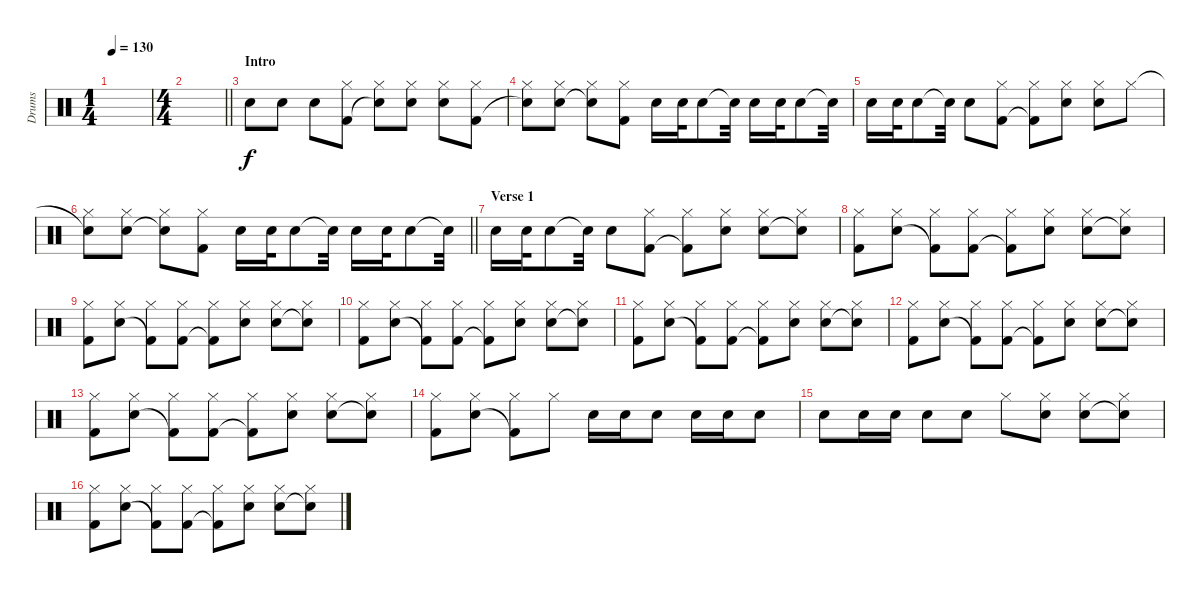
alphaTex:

\track ("Drums" "Drums") {instrument percussion}
\staff {score}
\articulation defaults
\ts (1 4)
\tempo 130
\clef neutral
\ks c
|
\ts (4 4)
\barLineRight lightlight
|
\section ("" "Intro")
"Snare (hit) 2".8 "Snare (hit) 2".8 "Snare (hit) 2".8 ("Kick (hit) 2" "Hi-Hat (closed)").8 ("Snare (hit)"{t} "Hi-Hat (closed)").8 ("Snare (hit) 2" "Hi-Hat (closed)").8 ("Snare (hit) 2" "Hi-Hat (closed)").8 ("Kick (hit) 2" "Hi-Hat (closed)").8 |
("Snare (hit)"{t} "Hi-Hat (closed)").8 ("Snare (hit) 2" "Hi-Hat (closed)").8 ("Snare (hit)"{t} "Hi-Hat (closed)").8 ("Kick (hit) 2" "Hi-Hat (closed)").8 "Snare (hit) 2".16 "Snare (hit) 2".32 "Snare (hit) 2".8 "Snare (hit)"{t}.32 "Snare (hit) 2".16 "Snare (hit) 2".32 "Snare (hit) 2".8 "Snare (hit)"{t}.32 |
"Snare (hit) 2".16 "Snare (hit) 2".32 "Snare (hit) 2".8 "Snare (hit)"{t}.32 "Snare (hit) 2".8 ("Kick (hit) 2" "Hi-Hat (closed)").8 ("Kick (hit) 2"{t} "Hi-Hat (closed)").8 ("Snare (hit) 2" "Hi-Hat (closed)").8 ("Snare (hit) 2" "Hi-Hat (closed)").8 "Hi-Hat (closed)".8 |
\barLineRight lightlight
("Snare (hit)"{t} "Hi-Hat (closed)").8 ("Snare (hit) 2" "Hi-Hat (closed)").8 ("Snare (hit)"{t} "Hi-Hat (closed)").8 ("Kick (hit) 2" "Hi-Hat (closed)").8 "Snare (hit) 2".16 "Snare (hit) 2".32 "Snare (hit) 2".8 "Snare (hit)"{t}.32 "Snare (hit) 2".16 "Snare (hit) 2".32 "Snare (hit) 2".8 "Snare (hit)"{t}.32 |
\section ("" "Verse 1")
"Snare (hit) 2".16 "Snare (hit) 2".32 "Snare (hit) 2".8 "Snare (hit)"{t}.32 "Snare (hit) 2".8 ("Kick (hit) 2" "Hi-Hat (closed)").8 ("Kick (hit) 2"{t} "Hi-Hat (closed)").8 ("Snare (hit) 2" "Hi-Hat (closed)").8 ("Snare (hit) 2" "Hi-Hat (closed)").8 ("Snare (hit)"{t} "Hi-Hat (closed)").8 |
("Kick (hit) 2" "Hi-Hat (closed)").8 ("Snare (hit) 2" "Hi-Hat (closed)").8 ("Kick (hit) 2"{t} "Hi-Hat (closed)").8 ("Kick (hit) 2" "Hi-Hat (closed)").8 ("Kick (hit) 2"{t} "Hi-Hat (closed)").8 ("Snare (hit) 2" "Hi-Hat (closed)").8 ("Snare (hit) 2" "Hi-Hat (closed)").8 ("Snare (hit) 2"{t} "Hi-Hat (closed)").8 |
("Kick (hit) 2" "Hi-Hat (closed)").8 ("Snare (hit) 2" "Hi-Hat (closed)").8 ("Kick (hit) 2"{t} "Hi-Hat (closed)").8 ("Kick (hit) 2" "Hi-Hat (closed)").8 ("Kick (hit) 2"{t} "Hi-Hat (closed)").8 ("Snare (hit) 2" "Hi-Hat (closed)").8 ("Snare (hit) 2" "Hi-Hat (closed)").8 ("Snare (hit) 2"{t} "Hi-Hat (closed)").8 |
("Kick (hit) 2" "Hi-Hat (closed)").8 ("Snare (hit) 2" "Hi-Hat (closed)").8 ("Kick (hit) 2"{t} "Hi-Hat (closed)").8 ("Kick (hit) 2" "Hi-Hat (closed)").8 ("Kick (hit) 2"{t} "Hi-Hat (closed)").8 ("Snare (hit) 2" "Hi-Hat (closed)").8 ("Snare (hit) 2" "Hi-Hat (closed)").8 ("Snare (hit) 2"{t} "Hi-Hat (closed)").8 |
("Kick (hit) 2" "Hi-Hat (closed)").8 ("Snare (hit) 2" "Hi-Hat (closed)").8 ("Kick (hit) 2"{t} "Hi-Hat (closed)").8 ("Kick (hit) 2" "Hi-Hat (closed)").8 ("Kick (hit) 2"{t} "Hi-Hat (closed)").8 ("Snare (hit) 2" "Hi-Hat (closed)").8 ("Snare (hit) 2" "Hi-Hat (closed)").8 ("Snare (hit) 2"{t} "Hi-Hat (closed)").8 |
("Kick (hit) 2" "Hi-Hat (closed)").8 ("Snare (hit) 2" "Hi-Hat (closed)").8 ("Kick (hit) 2"{t} "Hi-Hat (closed)").8 ("Kick (hit) 2" "Hi-Hat (closed)").8 ("Kick (hit) 2"{t} "Hi-Hat (closed)").8 ("Snare (hit) 2" "Hi-Hat (closed)").8 ("Snare (hit) 2" "Hi-Hat (closed)").8 ("Snare (hit) 2"{t} "Hi-Hat (closed)").8 |
("Kick (hit) 2" "Hi-Hat (closed)").8 ("Snare (hit) 2" "Hi-Hat (closed)").8 ("Kick (hit) 2"{t} "Hi-Hat (closed)").8 ("Kick (hit) 2" "Hi-Hat (closed)").8 ("Kick (hit) 2"{t} "Hi-Hat (closed)").8 ("Snare (hit) 2" "Hi-Hat (closed)").8 ("Snare (hit) 2" "Hi-Hat (closed)").8 ("Snare (hit) 2"{t} "Hi-Hat (closed)").8 |
("Kick (hit) 2" "Hi-Hat (closed)").8 ("Snare (hit) 2" "Hi-Hat (closed)").8 ("Kick (hit) 2"{t} "Hi-Hat (closed)").8 "Hi-Hat (closed)".8 "Snare (hit) 2".16 "Snare (hit) 2".16 "Snare (hit) 2".8 "Snare (hit) 2".16 "Snare (hit) 2".16 "Snare (hit) 2".8 |
"Snare (hit) 2".8 "Snare (hit) 2".16 "Snare (hit) 2".16 "Snare (hit) 2".8 "Snare (hit) 2".8 "Hi-Hat (closed)".8 ("Snare (hit) 2" "Hi-Hat (closed)").8 ("Snare (hit) 2" "Hi-Hat (closed)").8 ("Snare (hit) 2"{t} "Hi-Hat (closed)").8 |
("Kick (hit) 2" "Hi-Hat (closed)").8 ("Snare (hit) 2" "Hi-Hat (closed)").8 ("Kick (hit) 2"{t} "Hi-Hat (closed)").8 ("Kick (hit) 2" "Hi-Hat (closed)").8 ("Kick (hit) 2"{t} "Hi-Hat (closed)").8 ("Snare (hit) 2" "Hi-Hat (closed)").8 ("Snare (hit) 2" "Hi-Hat (closed)").8 ("Snare (hit) 2"{t} "Hi-Hat (closed)").8
